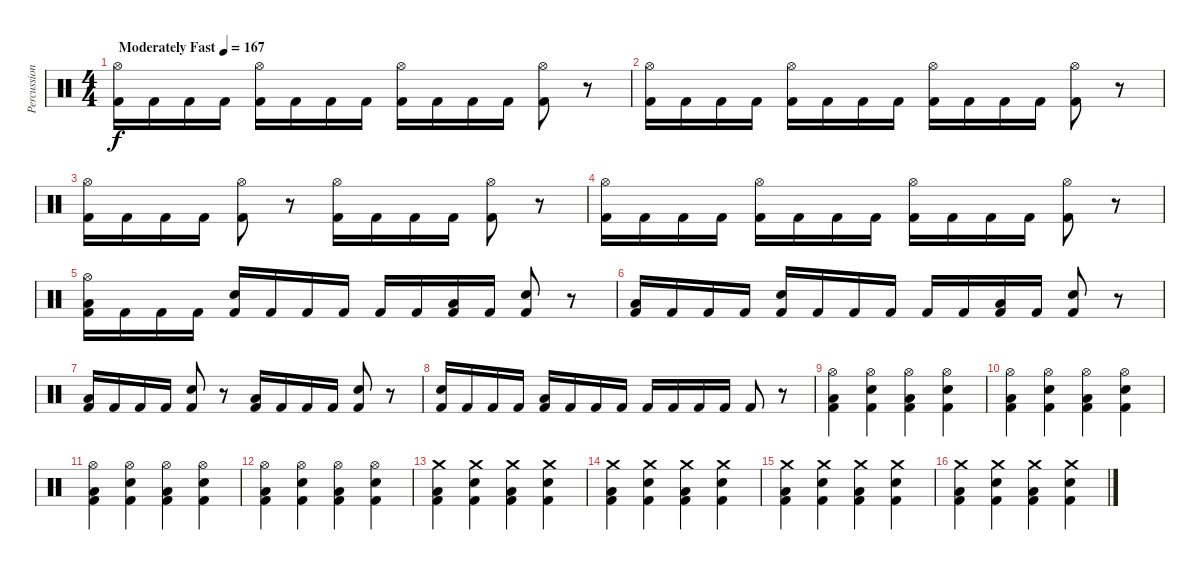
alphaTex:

\track ("Percussions" "Percussion") {instrument percussion}
\staff {score}
\articulation defaults
\ts (4 4)
\tempo (167 "Moderately Fast")
\clef neutral
\ks c
("Hi-Hat (open)" "Kick (hit) 2").16{dy f} "Kick (hit) 2".16 "Kick (hit) 2".16 "Kick (hit) 2".16 ("Hi-Hat (open)" "Kick (hit) 2").16 "Kick (hit) 2".16 "Kick (hit) 2".16 "Kick (hit) 2".16 ("Hi-Hat (open)" "Kick (hit) 2").16 "Kick (hit) 2".16 "Kick (hit) 2".16 "Kick (hit) 2".16 ("Hi-Hat (open)" "Kick (hit) 2").8 r.8 |
("Hi-Hat (open)" "Kick (hit) 2").16 "Kick (hit) 2".16 "Kick (hit) 2".16 "Kick (hit) 2".16 ("Hi-Hat (open)" "Kick (hit) 2").16 "Kick (hit) 2".16 "Kick (hit) 2".16 "Kick (hit) 2".16 ("Hi-Hat (open)" "Kick (hit) 2").16 "Kick (hit) 2".16 "Kick (hit) 2".16 "Kick (hit) 2".16 ("Hi-Hat (open)" "Kick (hit) 2").8 r.8 |
("Hi-Hat (open)" "Kick (hit) 2").16 "Kick (hit) 2".16 "Kick (hit) 2".16 "Kick (hit) 2".16 ("Hi-Hat (open)" "Kick (hit) 2").8 r.8 ("Hi-Hat (open)" "Kick (hit) 2").16 "Kick (hit) 2".16 "Kick (hit) 2".16 "Kick (hit) 2".16 ("Hi-Hat (open)" "Kick (hit) 2").8 r.8 |
("Hi-Hat (open)" "Kick (hit) 2").16 "Kick (hit) 2".16 "Kick (hit) 2".16 "Kick (hit) 2".16 ("Hi-Hat (open)" "Kick (hit) 2").16 "Kick (hit) 2".16 "Kick (hit) 2".16 "Kick (hit) 2".16 ("Hi-Hat (open)" "Kick (hit) 2").16 "Kick (hit) 2".16 "Kick (hit) 2".16 "Kick (hit) 2".16 ("Hi-Hat (open)" "Kick (hit) 2").8 r.8 |
("Hi-Hat (open)" "Low Floor Tom (hit)" "Kick (hit) 2").16 "Kick (hit) 2".16 "Kick (hit) 2".16 "Kick (hit) 2".16 ("Electric Snare (hit)" "Kick (hit) 2").16 "Kick (hit) 2".16 "Kick (hit) 2".16 "Kick (hit) 2".16 "Kick (hit) 2".16 "Kick (hit) 2".16 ("Low Floor Tom (hit)" "Kick (hit) 2").16 "Kick (hit) 2".16 ("Electric Snare (hit)" "Kick (hit) 2").8 r.8 |
("Low Floor Tom (hit)" "Kick (hit) 2").16 "Kick (hit) 2".16 "Kick (hit) 2".16 "Kick (hit) 2".16 ("Electric Snare (hit)" "Kick (hit) 2").16 "Kick (hit) 2".16 "Kick (hit) 2".16 "Kick (hit) 2".16 "Kick (hit) 2".16 "Kick (hit) 2".16 ("Low Floor Tom (hit)" "Kick (hit) 2").16 "Kick (hit) 2".16 ("Electric Snare (hit)" "Kick (hit) 2").8 r.8 |
("Low Floor Tom (hit)" "Kick (hit) 2").16 "Kick (hit) 2".16 "Kick (hit) 2".16 "Kick (hit) 2".16 ("Electric Snare (hit)" "Kick (hit) 2").8 r.8 ("Low Floor Tom (hit)" "Kick (hit) 2").16 "Kick (hit) 2".16 "Kick (hit) 2".16 "Kick (hit) 2".16 ("Electric Snare (hit)" "Kick (hit) 2").8 r.8 |
("Electric Snare (hit)" "Kick (hit) 2").16 "Kick (hit) 2".16 "Kick (hit) 2".16 "Kick (hit) 2".16 ("Low Floor Tom (hit)" "Kick (hit) 2").16 "Kick (hit) 2".16 "Kick (hit) 2".16 "Kick (hit) 2".16 "Kick (hit) 2".16 "Kick (hit) 2".16 "Kick (hit) 2".16 "Kick (hit) 2".16 "Kick (hit) 2".8 r.8 |
("Hi-Hat (open)" "Low Floor Tom (hit)" "Kick (hit) 2").4 ("Hi-Hat (open)" "Electric Snare (hit)" "Kick (hit) 2").4 ("Hi-Hat (open)" "Low Floor Tom (hit)" "Kick (hit) 2").4 ("Hi-Hat (open)" "Electric Snare (hit)" "Kick (hit) 2").4 |
("Hi-Hat (open)" "Low Floor Tom (hit)" "Kick (hit) 2").4 ("Hi-Hat (open)" "Electric Snare (hit)" "Kick (hit) 2").4 ("Hi-Hat (open)" "Low Floor Tom (hit)" "Kick (hit) 2").4 ("Hi-Hat (open)" "Electric Snare (hit)" "Kick (hit) 2").4 |
("Hi-Hat (open)" "Low Floor Tom (hit)" "Kick (hit) 2").4 ("Hi-Hat (open)" "Electric Snare (hit)" "Kick (hit) 2").4 ("Hi-Hat (open)" "Low Floor Tom (hit)" "Kick (hit) 2").4 ("Hi-Hat (open)" "Electric Snare (hit)" "Kick (hit) 2").4 |
("Hi-Hat (open)" "Low Floor Tom (hit)" "Kick (hit) 2").4 ("Hi-Hat (open)" "Electric Snare (hit)" "Kick (hit) 2").4 ("Hi-Hat (open)" "Low Floor Tom (hit)" "Kick (hit) 2").4 ("Hi-Hat (open)" "Electric Snare (hit)" "Kick (hit) 2").4 |
("Crash medium (hit)" "Low Floor Tom (hit)" "Kick (hit) 2").4 ("Crash medium (hit)" "Electric Snare (hit)" "Kick (hit) 2").4 ("Crash medium (hit)" "Low Floor Tom (hit)" "Kick (hit) 2").4 ("Crash medium (hit)" "Electric Snare (hit)" "Kick (hit) 2").4 |
("Crash medium (hit)" "Low Floor Tom (hit)" "Kick (hit) 2").4 ("Crash medium (hit)" "Electric Snare (hit)" "Kick (hit) 2").4 ("Crash medium (hit)" "Low Floor Tom (hit)" "Kick (hit) 2").4 ("Crash medium (hit)" "Electric Snare (hit)" "Kick (hit) 2").4 |
("Crash medium (hit)" "Low Floor Tom (hit)" "Kick (hit) 2").4 ("Crash medium (hit)" "Electric Snare (hit)" "Kick (hit) 2").4 ("Crash medium (hit)" "Low Floor Tom (hit)" "Kick (hit) 2").4 ("Crash medium (hit)" "Electric Snare (hit)" "Kick (hit) 2").4 |
("Crash medium (hit)" "Low Floor Tom (hit)" "Kick (hit) 2").4 ("Crash medium (hit)" "Electric Snare (hit)" "Kick (hit) 2").4 ("Crash medium (hit)" "Low Floor Tom (hit)" "Kick (hit) 2").4 ("Crash medium (hit)" "Electric Snare (hit)" "Kick (hit) 2").4
